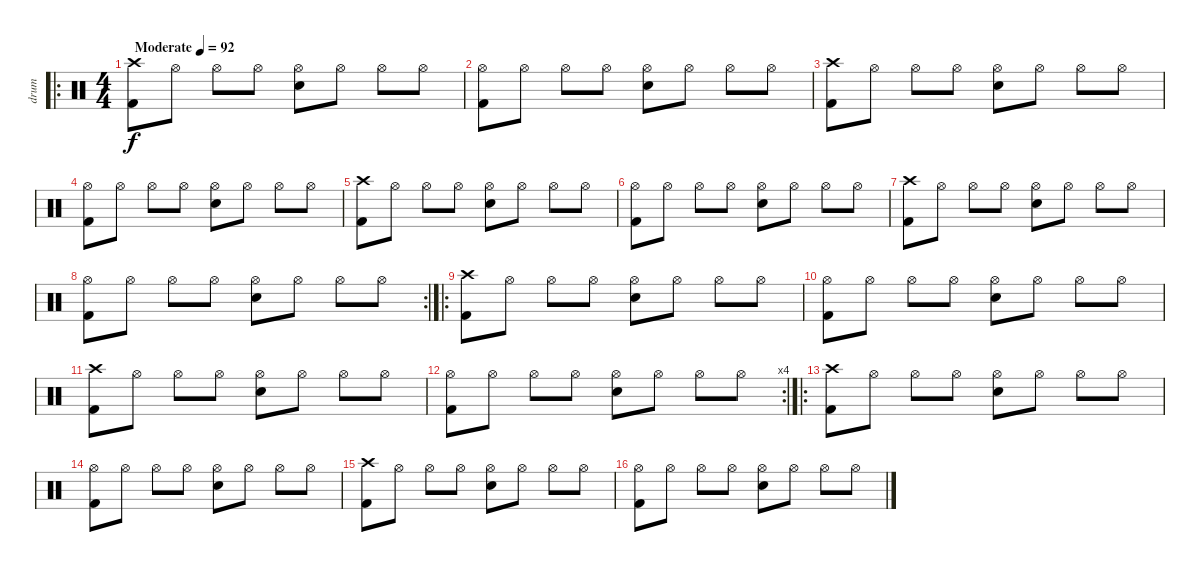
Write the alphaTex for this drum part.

\track ("drum" "drum") {instrument percussion}
\staff {score}
\articulation defaults
\ro
\ts (4 4)
\tempo (92 "Moderate")
\clef neutral
\ks c
("Crash high (hit)" "Kick (hit) 2").8{dy f} "Hi-Hat (open)".8 "Hi-Hat (open)".8 "Hi-Hat (open)".8 ("Hi-Hat (open)" "Electric Snare (hit)").8 "Hi-Hat (open)".8 "Hi-Hat (open)".8 "Hi-Hat (open)".8 |
("Hi-Hat (open)" "Kick (hit) 2").8 "Hi-Hat (open)".8 "Hi-Hat (open)".8 "Hi-Hat (open)".8 ("Hi-Hat (open)" "Electric Snare (hit)").8 "Hi-Hat (open)".8 "Hi-Hat (open)".8 "Hi-Hat (open)".8 |
("Crash high (hit)" "Kick (hit) 2").8 "Hi-Hat (open)".8 "Hi-Hat (open)".8 "Hi-Hat (open)".8 ("Hi-Hat (open)" "Electric Snare (hit)").8 "Hi-Hat (open)".8 "Hi-Hat (open)".8 "Hi-Hat (open)".8 |
("Hi-Hat (open)" "Kick (hit) 2").8 "Hi-Hat (open)".8 "Hi-Hat (open)".8 "Hi-Hat (open)".8 ("Hi-Hat (open)" "Electric Snare (hit)").8 "Hi-Hat (open)".8 "Hi-Hat (open)".8 "Hi-Hat (open)".8 |
("Crash high (hit)" "Kick (hit) 2").8 "Hi-Hat (open)".8 "Hi-Hat (open)".8 "Hi-Hat (open)".8 ("Hi-Hat (open)" "Electric Snare (hit)").8 "Hi-Hat (open)".8 "Hi-Hat (open)".8 "Hi-Hat (open)".8 |
("Hi-Hat (open)" "Kick (hit) 2").8 "Hi-Hat (open)".8 "Hi-Hat (open)".8 "Hi-Hat (open)".8 ("Hi-Hat (open)" "Electric Snare (hit)").8 "Hi-Hat (open)".8 "Hi-Hat (open)".8 "Hi-Hat (open)".8 |
("Crash high (hit)" "Kick (hit) 2").8 "Hi-Hat (open)".8 "Hi-Hat (open)".8 "Hi-Hat (open)".8 ("Hi-Hat (open)" "Electric Snare (hit)").8 "Hi-Hat (open)".8 "Hi-Hat (open)".8 "Hi-Hat (open)".8 |
\rc 2
("Hi-Hat (open)" "Kick (hit) 2").8 "Hi-Hat (open)".8 "Hi-Hat (open)".8 "Hi-Hat (open)".8 ("Hi-Hat (open)" "Electric Snare (hit)").8 "Hi-Hat (open)".8 "Hi-Hat (open)".8 "Hi-Hat (open)".8 |
\ro
("Crash high (hit)" "Kick (hit) 2").8 "Hi-Hat (open)".8 "Hi-Hat (open)".8 "Hi-Hat (open)".8 ("Hi-Hat (open)" "Electric Snare (hit)").8 "Hi-Hat (open)".8 "Hi-Hat (open)".8 "Hi-Hat (open)".8 |
("Hi-Hat (open)" "Kick (hit) 2").8 "Hi-Hat (open)".8 "Hi-Hat (open)".8 "Hi-Hat (open)".8 ("Hi-Hat (open)" "Electric Snare (hit)").8 "Hi-Hat (open)".8 "Hi-Hat (open)".8 "Hi-Hat (open)".8 |
("Crash high (hit)" "Kick (hit) 2").8 "Hi-Hat (open)".8 "Hi-Hat (open)".8 "Hi-Hat (open)".8 ("Hi-Hat (open)" "Electric Snare (hit)").8 "Hi-Hat (open)".8 "Hi-Hat (open)".8 "Hi-Hat (open)".8 |
\rc 4
("Hi-Hat (open)" "Kick (hit) 2").8 "Hi-Hat (open)".8 "Hi-Hat (open)".8 "Hi-Hat (open)".8 ("Hi-Hat (open)" "Electric Snare (hit)").8 "Hi-Hat (open)".8 "Hi-Hat (open)".8 "Hi-Hat (open)".8 |
\ro
("Crash high (hit)" "Kick (hit) 2").8 "Hi-Hat (open)".8 "Hi-Hat (open)".8 "Hi-Hat (open)".8 ("Hi-Hat (open)" "Electric Snare (hit)").8 "Hi-Hat (open)".8 "Hi-Hat (open)".8 "Hi-Hat (open)".8 |
("Hi-Hat (open)" "Kick (hit) 2").8 "Hi-Hat (open)".8 "Hi-Hat (open)".8 "Hi-Hat (open)".8 ("Hi-Hat (open)" "Electric Snare (hit)").8 "Hi-Hat (open)".8 "Hi-Hat (open)".8 "Hi-Hat (open)".8 |
("Crash high (hit)" "Kick (hit) 2").8 "Hi-Hat (open)".8 "Hi-Hat (open)".8 "Hi-Hat (open)".8 ("Hi-Hat (open)" "Electric Snare (hit)").8 "Hi-Hat (open)".8 "Hi-Hat (open)".8 "Hi-Hat (open)".8 |
("Hi-Hat (open)" "Kick (hit) 2").8 "Hi-Hat (open)".8 "Hi-Hat (open)".8 "Hi-Hat (open)".8 ("Hi-Hat (open)" "Electric Snare (hit)").8 "Hi-Hat (open)".8 "Hi-Hat (open)".8 "Hi-Hat (open)".8
